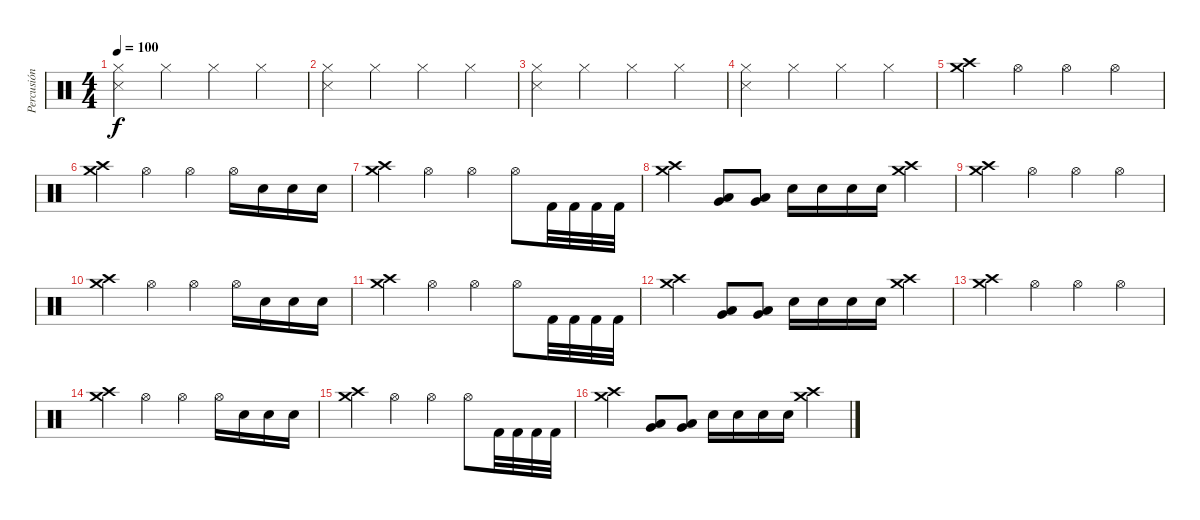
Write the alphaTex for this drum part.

\track ("Percusión" "Percusión") {instrument percussion}
\staff {score}
\articulation defaults
\ts (4 4)
\tempo 100
\clef neutral
\ks c
("Hi-Hat (closed)" "Snare (side stick) 3").4{dy f} "Hi-Hat (closed)".4 "Hi-Hat (closed)".4 "Hi-Hat (closed)".4 |
("Snare (side stick) 3" "Hi-Hat (closed)").4 "Hi-Hat (closed)".4 "Hi-Hat (closed)".4 "Hi-Hat (closed)".4 |
("Snare (side stick) 3" "Hi-Hat (closed)").4 "Hi-Hat (closed)".4 "Hi-Hat (closed)".4 "Hi-Hat (closed)".4 |
("Snare (side stick) 3" "Hi-Hat (closed)").4 "Hi-Hat (closed)".4 "Hi-Hat (closed)".4 "Hi-Hat (closed)".4 |
("Crash high (hit)" "Crash medium (hit)").4 "Hi-Hat (open)".4 "Hi-Hat (open)".4 "Hi-Hat (open)".4 |
("Crash high (hit)" "Crash medium (hit)").4 "Hi-Hat (open)".4 "Hi-Hat (open)".4 "Hi-Hat (open)".16 "Snare (hit) 2".16 "Snare (hit) 2".16 "Snare (hit) 2".16 |
("Crash high (hit)" "Crash medium (hit)").4 "Hi-Hat (open)".4 "Hi-Hat (open)".4 "Hi-Hat (open)".8 "Kick (hit) 2".32 "Kick (hit) 2".32 "Kick (hit) 2".32 "Kick (hit) 2".32 |
("Crash high (hit)" "Crash medium (hit)").4 ("Very Low Tom (hit)" "Low Floor Tom (hit)").8 ("Very Low Tom (hit)" "Low Floor Tom (hit)").8 "Snare (hit) 2".16 "Snare (hit) 2".16 "Snare (hit) 2".16 "Snare (hit) 2".16 ("Crash high (hit)" "Crash medium (hit)").4 |
("Crash high (hit)" "Crash medium (hit)").4 "Hi-Hat (open)".4 "Hi-Hat (open)".4 "Hi-Hat (open)".4 |
("Crash high (hit)" "Crash medium (hit)").4 "Hi-Hat (open)".4 "Hi-Hat (open)".4 "Hi-Hat (open)".16 "Snare (hit) 2".16 "Snare (hit) 2".16 "Snare (hit) 2".16 |
("Crash high (hit)" "Crash medium (hit)").4 "Hi-Hat (open)".4 "Hi-Hat (open)".4 "Hi-Hat (open)".8 "Kick (hit) 2".32 "Kick (hit) 2".32 "Kick (hit) 2".32 "Kick (hit) 2".32 |
("Crash high (hit)" "Crash medium (hit)").4 ("Very Low Tom (hit)" "Low Floor Tom (hit)").8 ("Very Low Tom (hit)" "Low Floor Tom (hit)").8 "Snare (hit) 2".16 "Snare (hit) 2".16 "Snare (hit) 2".16 "Snare (hit) 2".16 ("Crash high (hit)" "Crash medium (hit)").4 |
("Crash high (hit)" "Crash medium (hit)").4 "Hi-Hat (open)".4 "Hi-Hat (open)".4 "Hi-Hat (open)".4 |
("Crash high (hit)" "Crash medium (hit)").4 "Hi-Hat (open)".4 "Hi-Hat (open)".4 "Hi-Hat (open)".16 "Snare (hit) 2".16 "Snare (hit) 2".16 "Snare (hit) 2".16 |
("Crash high (hit)" "Crash medium (hit)").4 "Hi-Hat (open)".4 "Hi-Hat (open)".4 "Hi-Hat (open)".8 "Kick (hit) 2".32 "Kick (hit) 2".32 "Kick (hit) 2".32 "Kick (hit) 2".32 |
("Crash high (hit)" "Crash medium (hit)").4 ("Very Low Tom (hit)" "Low Floor Tom (hit)").8 ("Very Low Tom (hit)" "Low Floor Tom (hit)").8 "Snare (hit) 2".16 "Snare (hit) 2".16 "Snare (hit) 2".16 "Snare (hit) 2".16 ("Crash high (hit)" "Crash medium (hit)").4
